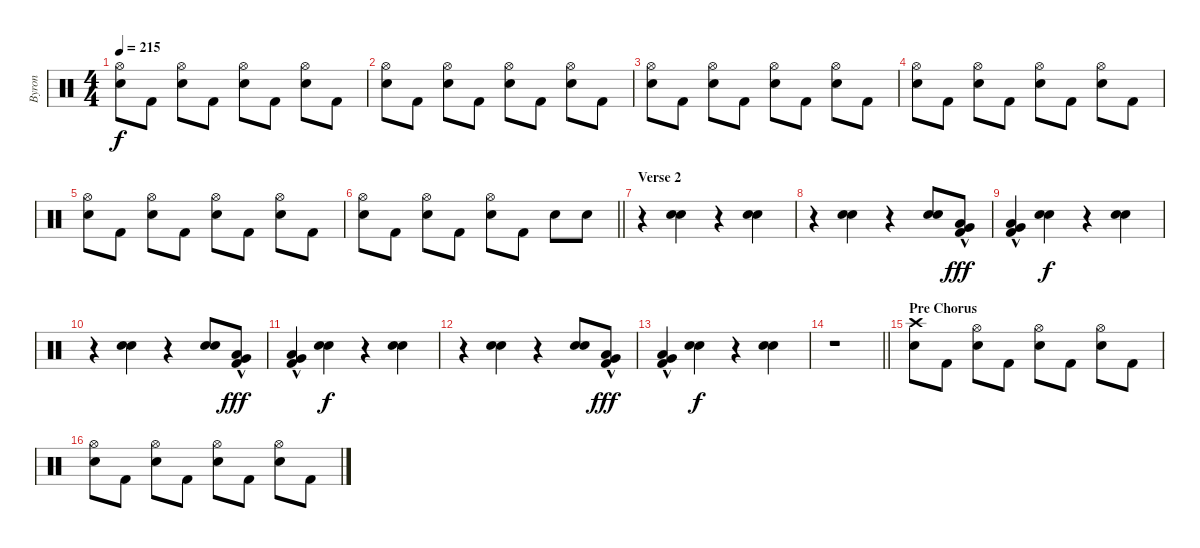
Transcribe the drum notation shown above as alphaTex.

\track ("Byron" "Byron") {instrument percussion}
\staff {score}
\articulation defaults
\ts (4 4)
\tempo 215
\clef neutral
\ks c
("Hi-Hat (open)" "Electric Snare (hit)").8{dy f} "Kick (hit) 2".8 ("Hi-Hat (open)" "Electric Snare (hit)").8 "Kick (hit) 2".8 ("Hi-Hat (open)" "Electric Snare (hit)").8 "Kick (hit) 2".8 ("Hi-Hat (open)" "Electric Snare (hit)").8 "Kick (hit) 2".8 |
("Hi-Hat (open)" "Electric Snare (hit)").8 "Kick (hit) 2".8 ("Hi-Hat (open)" "Electric Snare (hit)").8 "Kick (hit) 2".8 ("Hi-Hat (open)" "Electric Snare (hit)").8 "Kick (hit) 2".8 ("Hi-Hat (open)" "Electric Snare (hit)").8 "Kick (hit) 2".8 |
("Hi-Hat (open)" "Electric Snare (hit)").8 "Kick (hit) 2".8 ("Hi-Hat (open)" "Electric Snare (hit)").8 "Kick (hit) 2".8 ("Hi-Hat (open)" "Electric Snare (hit)").8 "Kick (hit) 2".8 ("Hi-Hat (open)" "Electric Snare (hit)").8 "Kick (hit) 2".8 |
("Hi-Hat (open)" "Electric Snare (hit)").8 "Kick (hit) 2".8 ("Hi-Hat (open)" "Electric Snare (hit)").8 "Kick (hit) 2".8 ("Hi-Hat (open)" "Electric Snare (hit)").8 "Kick (hit) 2".8 ("Hi-Hat (open)" "Electric Snare (hit)").8 "Kick (hit) 2".8 |
("Hi-Hat (open)" "Electric Snare (hit)").8 "Kick (hit) 2".8 ("Hi-Hat (open)" "Electric Snare (hit)").8 "Kick (hit) 2".8 ("Hi-Hat (open)" "Electric Snare (hit)").8 "Kick (hit) 2".8 ("Hi-Hat (open)" "Electric Snare (hit)").8 "Kick (hit) 2".8 |
\barLineRight lightlight
("Hi-Hat (open)" "Electric Snare (hit)").8 "Kick (hit) 2".8 ("Hi-Hat (open)" "Electric Snare (hit)").8 "Kick (hit) 2".8 ("Hi-Hat (open)" "Electric Snare (hit)").8 "Kick (hit) 2".8 "Electric Snare (hit)".8 "Electric Snare (hit)".8 |
\section ("" "Verse 2")
r.4 ("Electric Snare (hit)" "Electric Snare (hit)").4 r.4 ("Electric Snare (hit)" "Electric Snare (hit)").4 |
r.4 ("Electric Snare (hit)" "Electric Snare (hit)").4 r.4 ("Electric Snare (hit)" "Electric Snare (hit)").8 ("Low Tom (hit)"{hac} "Very Low Tom (hit)"{hac} "Kick (hit) 2"{hac}).8{dy fff} |
("Low Tom (hit)"{hac} "Very Low Tom (hit)"{hac} "Kick (hit) 2"{hac}).4 ("Electric Snare (hit)" "Electric Snare (hit)").4{dy f} r.4 ("Electric Snare (hit)" "Electric Snare (hit)").4 |
r.4 ("Electric Snare (hit)" "Electric Snare (hit)").4 r.4 ("Electric Snare (hit)" "Electric Snare (hit)").8 ("Low Tom (hit)"{hac} "Very Low Tom (hit)"{hac} "Kick (hit) 2"{hac}).8{dy fff} |
("Low Tom (hit)"{hac} "Very Low Tom (hit)"{hac} "Kick (hit) 2"{hac}).4 ("Electric Snare (hit)" "Electric Snare (hit)").4{dy f} r.4 ("Electric Snare (hit)" "Electric Snare (hit)").4 |
r.4 ("Electric Snare (hit)" "Electric Snare (hit)").4 r.4 ("Electric Snare (hit)" "Electric Snare (hit)").8 ("Low Tom (hit)"{hac} "Very Low Tom (hit)"{hac} "Kick (hit) 2"{hac}).8{dy fff} |
("Low Tom (hit)"{hac} "Very Low Tom (hit)"{hac} "Kick (hit) 2"{hac}).4 ("Electric Snare (hit)" "Electric Snare (hit)").4{dy f} r.4 ("Electric Snare (hit)" "Electric Snare (hit)").4 |
\barLineRight lightlight
r.1 |
\section ("" "Pre Chorus")
("Crash high (hit)" "Electric Snare (hit)").8 "Kick (hit) 2".8 ("Hi-Hat (open)" "Electric Snare (hit)").8 "Kick (hit) 2".8 ("Hi-Hat (open)" "Electric Snare (hit)").8 "Kick (hit) 2".8 ("Hi-Hat (open)" "Electric Snare (hit)").8 "Kick (hit) 2".8 |
("Hi-Hat (open)" "Electric Snare (hit)").8 "Kick (hit) 2".8 ("Hi-Hat (open)" "Electric Snare (hit)").8 "Kick (hit) 2".8 ("Hi-Hat (open)" "Electric Snare (hit)").8 "Kick (hit) 2".8 ("Hi-Hat (open)" "Electric Snare (hit)").8 "Kick (hit) 2".8
